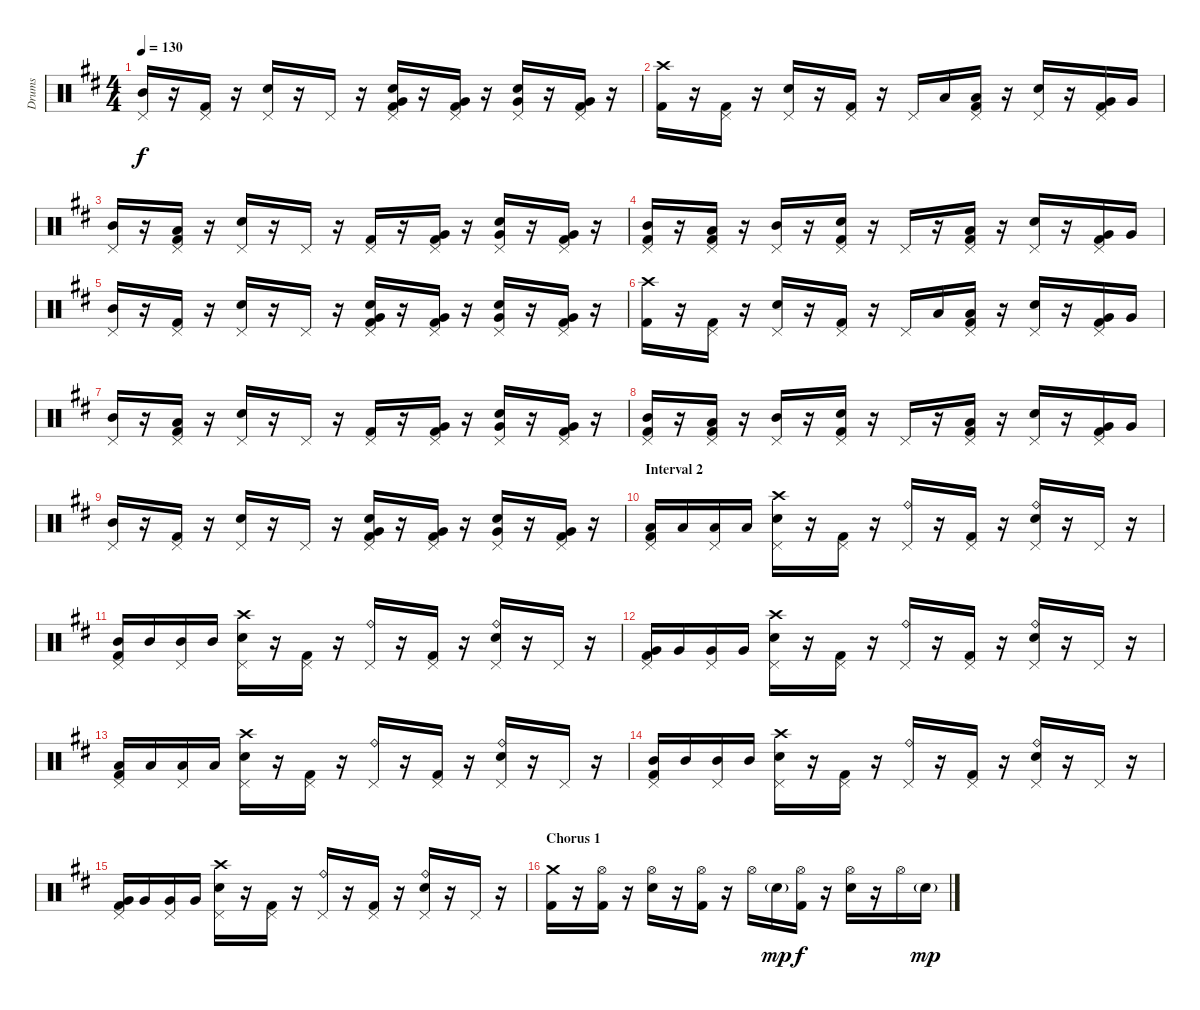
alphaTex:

\track ("Drums" "Drums") {instrument percussion}
\staff {score}
\articulation defaults
\ts (4 4)
\tempo 130
\clef neutral
\ks d
("Mid Tom (hit)" "Pedal Hi-Hat (hit)").16{dy f} r.16 ("Pedal Hi-Hat (hit)" "Kick (hit) 2").16 r.16 ("Pedal Hi-Hat (hit)" "Electric Snare (hit)").16 r.16 "Pedal Hi-Hat (hit)".16 r.16 ("Pedal Hi-Hat (hit)" "Electric Snare (hit)" "Very Low Tom (hit)" "Kick (hit) 2").16 r.16 ("Pedal Hi-Hat (hit)" "Very Low Tom (hit)" "Kick (hit) 2").16 r.16 ("Pedal Hi-Hat (hit)" "Electric Snare (hit)" "Very Low Tom (hit)").16 r.16 ("Pedal Hi-Hat (hit)" "Very Low Tom (hit)" "Kick (hit) 2").16 r.16 |
("Crash high (hit)" "Kick (hit) 2").16 r.16 ("Pedal Hi-Hat (hit)" "Kick (hit) 2").16 r.16 ("Pedal Hi-Hat (hit)" "Electric Snare (hit)").16 r.16 ("Pedal Hi-Hat (hit)" "Kick (hit) 2").16 r.16 "Pedal Hi-Hat (hit)".16 "Low Tom (hit)".16 ("Pedal Hi-Hat (hit)" "Low Tom (hit)" "Kick (hit) 2").16 r.16 ("Pedal Hi-Hat (hit)" "Electric Snare (hit)").16 r.16 ("Pedal Hi-Hat (hit)" "Very Low Tom (hit)" "Kick (hit) 2").16 "Very Low Tom (hit)".16 |
("Mid Tom (hit)" "Pedal Hi-Hat (hit)").16 r.16 ("Pedal Hi-Hat (hit)" "Low Tom (hit)" "Kick (hit) 2").16 r.16 ("Pedal Hi-Hat (hit)" "Electric Snare (hit)").16 r.16 "Pedal Hi-Hat (hit)".16 r.16 ("Pedal Hi-Hat (hit)" "Kick (hit) 2").16 r.16 ("Pedal Hi-Hat (hit)" "Very Low Tom (hit)" "Kick (hit) 2").16 r.16 ("Pedal Hi-Hat (hit)" "Electric Snare (hit)" "Very Low Tom (hit)").16 r.16 ("Pedal Hi-Hat (hit)" "Very Low Tom (hit)" "Kick (hit) 2").16 r.16 |
("Mid Tom (hit)" "Pedal Hi-Hat (hit)" "Kick (hit) 2").16 r.16 ("Pedal Hi-Hat (hit)" "Low Tom (hit)" "Kick (hit) 2").16 r.16 ("Mid Tom (hit)" "Pedal Hi-Hat (hit)").16 r.16 ("Pedal Hi-Hat (hit)" "Electric Snare (hit)" "Kick (hit) 2").16 r.16 "Pedal Hi-Hat (hit)".16 r.16 ("Pedal Hi-Hat (hit)" "Low Tom (hit)" "Kick (hit) 2").16 r.16 ("Pedal Hi-Hat (hit)" "Electric Snare (hit)").16 r.16 ("Pedal Hi-Hat (hit)" "Very Low Tom (hit)" "Kick (hit) 2").16 "Very Low Tom (hit)".16 |
("Mid Tom (hit)" "Pedal Hi-Hat (hit)").16 r.16 ("Pedal Hi-Hat (hit)" "Kick (hit) 2").16 r.16 ("Pedal Hi-Hat (hit)" "Electric Snare (hit)").16 r.16 "Pedal Hi-Hat (hit)".16 r.16 ("Pedal Hi-Hat (hit)" "Electric Snare (hit)" "Very Low Tom (hit)" "Kick (hit) 2").16 r.16 ("Pedal Hi-Hat (hit)" "Very Low Tom (hit)" "Kick (hit) 2").16 r.16 ("Pedal Hi-Hat (hit)" "Electric Snare (hit)" "Very Low Tom (hit)").16 r.16 ("Pedal Hi-Hat (hit)" "Very Low Tom (hit)" "Kick (hit) 2").16 r.16 |
("Crash high (hit)" "Kick (hit) 2").16 r.16 ("Pedal Hi-Hat (hit)" "Kick (hit) 2").16 r.16 ("Pedal Hi-Hat (hit)" "Electric Snare (hit)").16 r.16 ("Pedal Hi-Hat (hit)" "Kick (hit) 2").16 r.16 "Pedal Hi-Hat (hit)".16 "Low Tom (hit)".16 ("Pedal Hi-Hat (hit)" "Low Tom (hit)" "Kick (hit) 2").16 r.16 ("Pedal Hi-Hat (hit)" "Electric Snare (hit)").16 r.16 ("Pedal Hi-Hat (hit)" "Very Low Tom (hit)" "Kick (hit) 2").16 "Very Low Tom (hit)".16 |
("Mid Tom (hit)" "Pedal Hi-Hat (hit)").16 r.16 ("Pedal Hi-Hat (hit)" "Low Tom (hit)" "Kick (hit) 2").16 r.16 ("Pedal Hi-Hat (hit)" "Electric Snare (hit)").16 r.16 "Pedal Hi-Hat (hit)".16 r.16 ("Pedal Hi-Hat (hit)" "Kick (hit) 2").16 r.16 ("Pedal Hi-Hat (hit)" "Very Low Tom (hit)" "Kick (hit) 2").16 r.16 ("Pedal Hi-Hat (hit)" "Electric Snare (hit)" "Very Low Tom (hit)").16 r.16 ("Pedal Hi-Hat (hit)" "Very Low Tom (hit)" "Kick (hit) 2").16 r.16 |
("Mid Tom (hit)" "Pedal Hi-Hat (hit)" "Kick (hit) 2").16 r.16 ("Pedal Hi-Hat (hit)" "Low Tom (hit)" "Kick (hit) 2").16 r.16 ("Mid Tom (hit)" "Pedal Hi-Hat (hit)").16 r.16 ("Pedal Hi-Hat (hit)" "Electric Snare (hit)" "Kick (hit) 2").16 r.16 "Pedal Hi-Hat (hit)".16 r.16 ("Pedal Hi-Hat (hit)" "Low Tom (hit)" "Kick (hit) 2").16 r.16 ("Pedal Hi-Hat (hit)" "Electric Snare (hit)").16 r.16 ("Pedal Hi-Hat (hit)" "Very Low Tom (hit)" "Kick (hit) 2").16 "Very Low Tom (hit)".16 |
("Mid Tom (hit)" "Pedal Hi-Hat (hit)").16 r.16 ("Pedal Hi-Hat (hit)" "Kick (hit) 2").16 r.16 ("Pedal Hi-Hat (hit)" "Electric Snare (hit)").16 r.16 "Pedal Hi-Hat (hit)".16 r.16 ("Pedal Hi-Hat (hit)" "Electric Snare (hit)" "Very Low Tom (hit)" "Kick (hit) 2").16 r.16 ("Pedal Hi-Hat (hit)" "Very Low Tom (hit)" "Kick (hit) 2").16 r.16 ("Pedal Hi-Hat (hit)" "Electric Snare (hit)" "Very Low Tom (hit)").16 r.16 ("Pedal Hi-Hat (hit)" "Very Low Tom (hit)" "Kick (hit) 2").16 r.16 |
\section ("" "Interval 2")
("Pedal Hi-Hat (hit)" "Low Tom (hit)" "Kick (hit) 2").16 "Low Tom (hit)".16 ("Pedal Hi-Hat (hit)" "Low Tom (hit)").16 "Low Tom (hit)".16 ("Crash high (hit)" "Pedal Hi-Hat (hit)" "Electric Snare (hit)").16 r.16 ("Pedal Hi-Hat (hit)" "Kick (hit) 2").16 r.16 ("Ride (bell)" "Pedal Hi-Hat (hit)").16 r.16 ("Pedal Hi-Hat (hit)" "Kick (hit) 2").16 r.16 ("Ride (bell)" "Pedal Hi-Hat (hit)" "Electric Snare (hit)").16 r.16 "Pedal Hi-Hat (hit)".16 r.16 |
("Mid Tom (hit)" "Pedal Hi-Hat (hit)" "Kick (hit) 2").16 "Mid Tom (hit)".16 ("Mid Tom (hit)" "Pedal Hi-Hat (hit)").16 "Mid Tom (hit)".16 ("Crash high (hit)" "Pedal Hi-Hat (hit)" "Electric Snare (hit)").16 r.16 ("Pedal Hi-Hat (hit)" "Kick (hit) 2").16 r.16 ("Ride (bell)" "Pedal Hi-Hat (hit)").16 r.16 ("Pedal Hi-Hat (hit)" "Kick (hit) 2").16 r.16 ("Ride (bell)" "Pedal Hi-Hat (hit)" "Electric Snare (hit)").16 r.16 "Pedal Hi-Hat (hit)".16 r.16 |
("Pedal Hi-Hat (hit)" "Very Low Tom (hit)" "Kick (hit) 2").16 "Very Low Tom (hit)".16 ("Pedal Hi-Hat (hit)" "Very Low Tom (hit)").16 "Very Low Tom (hit)".16 ("Crash high (hit)" "Pedal Hi-Hat (hit)" "Electric Snare (hit)").16 r.16 ("Pedal Hi-Hat (hit)" "Kick (hit) 2").16 r.16 ("Ride (bell)" "Pedal Hi-Hat (hit)").16 r.16 ("Pedal Hi-Hat (hit)" "Kick (hit) 2").16 r.16 ("Ride (bell)" "Pedal Hi-Hat (hit)" "Electric Snare (hit)").16 r.16 "Pedal Hi-Hat (hit)".16 r.16 |
("Pedal Hi-Hat (hit)" "Low Tom (hit)" "Kick (hit) 2").16 "Low Tom (hit)".16 ("Pedal Hi-Hat (hit)" "Low Tom (hit)").16 "Low Tom (hit)".16 ("Crash high (hit)" "Pedal Hi-Hat (hit)" "Electric Snare (hit)").16 r.16 ("Pedal Hi-Hat (hit)" "Kick (hit) 2").16 r.16 ("Ride (bell)" "Pedal Hi-Hat (hit)").16 r.16 ("Pedal Hi-Hat (hit)" "Kick (hit) 2").16 r.16 ("Ride (bell)" "Pedal Hi-Hat (hit)" "Electric Snare (hit)").16 r.16 "Pedal Hi-Hat (hit)".16 r.16 |
("Mid Tom (hit)" "Pedal Hi-Hat (hit)" "Kick (hit) 2").16 "Mid Tom (hit)".16 ("Mid Tom (hit)" "Pedal Hi-Hat (hit)").16 "Mid Tom (hit)".16 ("Crash high (hit)" "Pedal Hi-Hat (hit)" "Electric Snare (hit)").16 r.16 ("Pedal Hi-Hat (hit)" "Kick (hit) 2").16 r.16 ("Ride (bell)" "Pedal Hi-Hat (hit)").16 r.16 ("Pedal Hi-Hat (hit)" "Kick (hit) 2").16 r.16 ("Ride (bell)" "Pedal Hi-Hat (hit)" "Electric Snare (hit)").16 r.16 "Pedal Hi-Hat (hit)".16 r.16 |
("Pedal Hi-Hat (hit)" "Very Low Tom (hit)" "Kick (hit) 2").16 "Very Low Tom (hit)".16 ("Pedal Hi-Hat (hit)" "Very Low Tom (hit)").16 "Very Low Tom (hit)".16 ("Crash high (hit)" "Pedal Hi-Hat (hit)" "Electric Snare (hit)").16 r.16 ("Pedal Hi-Hat (hit)" "Kick (hit) 2").16 r.16 ("Ride (bell)" "Pedal Hi-Hat (hit)").16 r.16 ("Pedal Hi-Hat (hit)" "Kick (hit) 2").16 r.16 ("Ride (bell)" "Pedal Hi-Hat (hit)" "Electric Snare (hit)").16 r.16 "Pedal Hi-Hat (hit)".16 r.16 |
\section ("" "Chorus 1")
("Crash medium (hit)" "Kick (hit) 2").16 r.16 ("Hi-Hat (open)" "Kick (hit) 2").16 r.16 ("Hi-Hat (open)" "Electric Snare (hit)").16 r.16 ("Hi-Hat (open)" "Kick (hit) 2").16 r.16 "Hi-Hat (open)".16 "Electric Snare (hit)"{g}.16{dy mp} ("Hi-Hat (open)" "Kick (hit) 2").16{dy f} r.16 ("Hi-Hat (open)" "Electric Snare (hit)").16 r.16 "Hi-Hat (open)".16 "Electric Snare (hit)"{g}.16{dy mp}
